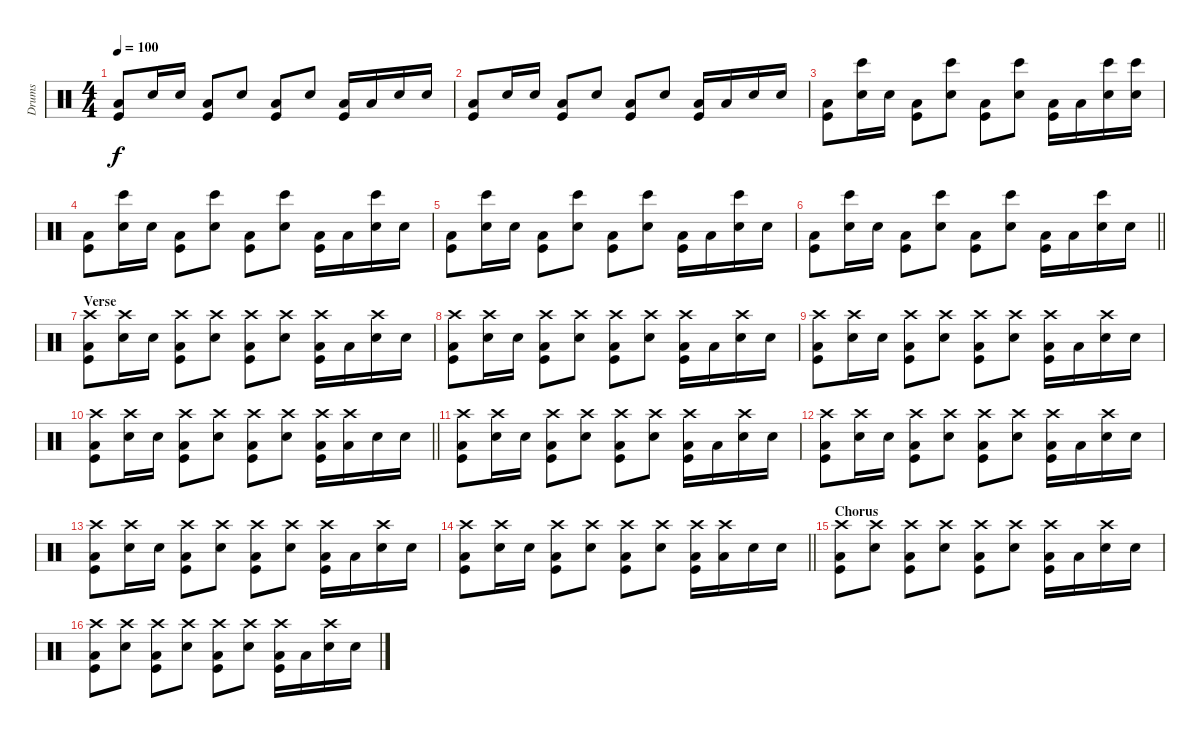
\track ("Drums" "Drums") {instrument percussion}
\staff {score}
\articulation defaults
\ts (4 4)
\tempo 100
\clef neutral
\ks c
("Low Floor Tom (hit)" "Kick (hit)").8{dy f} "Snare (hit) 2".16 "Snare (hit) 2".16 ("Low Floor Tom (hit)" "Kick (hit)").8 "Snare (hit) 2".8 ("Low Floor Tom (hit)" "Kick (hit)").8 "Snare (hit) 2".8 ("Low Floor Tom (hit)" "Kick (hit)").16 "Low Floor Tom (hit)".16 "Snare (hit) 2".16 "Snare (hit) 2".16 |
("Low Floor Tom (hit)" "Kick (hit)").8 "Snare (hit) 2".16 "Snare (hit) 2".16 ("Low Floor Tom (hit)" "Kick (hit)").8 "Snare (hit) 2".8 ("Low Floor Tom (hit)" "Kick (hit)").8 "Snare (hit) 2".8 ("Low Floor Tom (hit)" "Kick (hit)").16 "Low Floor Tom (hit)".16 "Snare (hit) 2".16 "Snare (hit) 2".16 |
("Low Floor Tom (hit)" "Kick (hit)").8 ("Bongo High (hit)" "Snare (hit) 2").16 "Snare (hit) 2".16 ("Low Floor Tom (hit)" "Kick (hit)").8 ("Bongo High (hit)" "Snare (hit) 2").8 ("Low Floor Tom (hit)" "Kick (hit)").8 ("Bongo High (hit)" "Snare (hit) 2").8 ("Low Floor Tom (hit)" "Kick (hit)").16 "Low Floor Tom (hit)".16 ("Bongo High (hit)" "Snare (hit) 2").16 ("Bongo High (hit)" "Snare (hit) 2").16 |
("Low Floor Tom (hit)" "Kick (hit)").8 ("Bongo High (hit)" "Snare (hit) 2").16 "Snare (hit) 2".16 ("Low Floor Tom (hit)" "Kick (hit)").8 ("Bongo High (hit)" "Snare (hit) 2").8 ("Low Floor Tom (hit)" "Kick (hit)").8 ("Bongo High (hit)" "Snare (hit) 2").8 ("Low Floor Tom (hit)" "Kick (hit)").16 "Low Floor Tom (hit)".16 ("Bongo High (hit)" "Snare (hit) 2").16 "Snare (hit) 2".16 |
("Low Floor Tom (hit)" "Kick (hit)").8 ("Bongo High (hit)" "Snare (hit) 2").16 "Snare (hit) 2".16 ("Low Floor Tom (hit)" "Kick (hit)").8 ("Bongo High (hit)" "Snare (hit) 2").8 ("Low Floor Tom (hit)" "Kick (hit)").8 ("Bongo High (hit)" "Snare (hit) 2").8 ("Low Floor Tom (hit)" "Kick (hit)").16 "Low Floor Tom (hit)".16 ("Bongo High (hit)" "Snare (hit) 2").16 "Snare (hit) 2".16 |
\barLineRight lightlight
("Low Floor Tom (hit)" "Kick (hit)").8 ("Bongo High (hit)" "Snare (hit) 2").16 "Snare (hit) 2".16 ("Low Floor Tom (hit)" "Kick (hit)").8 ("Bongo High (hit)" "Snare (hit) 2").8 ("Low Floor Tom (hit)" "Kick (hit)").8 ("Bongo High (hit)" "Snare (hit) 2").8 ("Low Floor Tom (hit)" "Kick (hit)").16 "Low Floor Tom (hit)".16 ("Bongo High (hit)" "Snare (hit) 2").16 "Snare (hit) 2".16 |
\section ("" "Verse")
("Crash high (hit)" "Low Floor Tom (hit)" "Kick (hit)").8 ("Crash high (hit)" "Snare (hit) 2").16 "Snare (hit) 2".16 ("Crash high (hit)" "Low Floor Tom (hit)" "Kick (hit)").8 ("Crash high (hit)" "Snare (hit) 2").8 ("Crash high (hit)" "Low Floor Tom (hit)" "Kick (hit)").8 ("Crash high (hit)" "Snare (hit) 2").8 ("Crash high (hit)" "Low Floor Tom (hit)" "Kick (hit)").16 "Low Floor Tom (hit)".16 ("Crash high (hit)" "Snare (hit) 2").16 "Snare (hit) 2".16 |
("Crash high (hit)" "Low Floor Tom (hit)" "Kick (hit)").8 ("Crash high (hit)" "Snare (hit) 2").16 "Snare (hit) 2".16 ("Crash high (hit)" "Low Floor Tom (hit)" "Kick (hit)").8 ("Crash high (hit)" "Snare (hit) 2").8 ("Crash high (hit)" "Low Floor Tom (hit)" "Kick (hit)").8 ("Crash high (hit)" "Snare (hit) 2").8 ("Crash high (hit)" "Low Floor Tom (hit)" "Kick (hit)").16 "Low Floor Tom (hit)".16 ("Crash high (hit)" "Snare (hit) 2").16 "Snare (hit) 2".16 |
("Crash high (hit)" "Low Floor Tom (hit)" "Kick (hit)").8 ("Crash high (hit)" "Snare (hit) 2").16 "Snare (hit) 2".16 ("Crash high (hit)" "Low Floor Tom (hit)" "Kick (hit)").8 ("Crash high (hit)" "Snare (hit) 2").8 ("Crash high (hit)" "Low Floor Tom (hit)" "Kick (hit)").8 ("Crash high (hit)" "Snare (hit) 2").8 ("Crash high (hit)" "Low Floor Tom (hit)" "Kick (hit)").16 "Low Floor Tom (hit)".16 ("Crash high (hit)" "Snare (hit) 2").16 "Snare (hit) 2".16 |
\barLineRight lightlight
("Crash high (hit)" "Low Floor Tom (hit)" "Kick (hit)").8 ("Crash high (hit)" "Snare (hit) 2").16 "Snare (hit) 2".16 ("Crash high (hit)" "Low Floor Tom (hit)" "Kick (hit)").8 ("Crash high (hit)" "Snare (hit) 2").8 ("Crash high (hit)" "Low Floor Tom (hit)" "Kick (hit)").8 ("Crash high (hit)" "Snare (hit) 2").8 ("Crash high (hit)" "Low Floor Tom (hit)" "Kick (hit)").16 ("Crash high (hit)" "Low Floor Tom (hit)").16 "Snare (hit) 2".16 "Snare (hit) 2".16 |
("Crash high (hit)" "Low Floor Tom (hit)" "Kick (hit)").8 ("Crash high (hit)" "Snare (hit) 2").16 "Snare (hit) 2".16 ("Crash high (hit)" "Low Floor Tom (hit)" "Kick (hit)").8 ("Crash high (hit)" "Snare (hit) 2").8 ("Crash high (hit)" "Low Floor Tom (hit)" "Kick (hit)").8 ("Crash high (hit)" "Snare (hit) 2").8 ("Crash high (hit)" "Low Floor Tom (hit)" "Kick (hit)").16 "Low Floor Tom (hit)".16 ("Crash high (hit)" "Snare (hit) 2").16 "Snare (hit) 2".16 |
("Crash high (hit)" "Low Floor Tom (hit)" "Kick (hit)").8 ("Crash high (hit)" "Snare (hit) 2").16 "Snare (hit) 2".16 ("Crash high (hit)" "Low Floor Tom (hit)" "Kick (hit)").8 ("Crash high (hit)" "Snare (hit) 2").8 ("Crash high (hit)" "Low Floor Tom (hit)" "Kick (hit)").8 ("Crash high (hit)" "Snare (hit) 2").8 ("Crash high (hit)" "Low Floor Tom (hit)" "Kick (hit)").16 "Low Floor Tom (hit)".16 ("Crash high (hit)" "Snare (hit) 2").16 "Snare (hit) 2".16 |
("Crash high (hit)" "Low Floor Tom (hit)" "Kick (hit)").8 ("Crash high (hit)" "Snare (hit) 2").16 "Snare (hit) 2".16 ("Crash high (hit)" "Low Floor Tom (hit)" "Kick (hit)").8 ("Crash high (hit)" "Snare (hit) 2").8 ("Crash high (hit)" "Low Floor Tom (hit)" "Kick (hit)").8 ("Crash high (hit)" "Snare (hit) 2").8 ("Crash high (hit)" "Low Floor Tom (hit)" "Kick (hit)").16 "Low Floor Tom (hit)".16 ("Crash high (hit)" "Snare (hit) 2").16 "Snare (hit) 2".16 |
\barLineRight lightlight
("Crash high (hit)" "Low Floor Tom (hit)" "Kick (hit)").8 ("Crash high (hit)" "Snare (hit) 2").16 "Snare (hit) 2".16 ("Crash high (hit)" "Low Floor Tom (hit)" "Kick (hit)").8 ("Crash high (hit)" "Snare (hit) 2").8 ("Crash high (hit)" "Low Floor Tom (hit)" "Kick (hit)").8 ("Crash high (hit)" "Snare (hit) 2").8 ("Crash high (hit)" "Low Floor Tom (hit)" "Kick (hit)").16 ("Crash high (hit)" "Low Floor Tom (hit)").16 "Snare (hit) 2".16 "Snare (hit) 2".16 |
\section ("" "Chorus")
("Crash high (hit)" "Low Floor Tom (hit)" "Kick (hit)").8 ("Crash high (hit)" "Snare (hit) 2").8 ("Crash high (hit)" "Low Floor Tom (hit)" "Kick (hit)").8 ("Crash high (hit)" "Snare (hit) 2").8 ("Crash high (hit)" "Low Floor Tom (hit)" "Kick (hit)").8 ("Crash high (hit)" "Snare (hit) 2").8 ("Crash high (hit)" "Low Floor Tom (hit)" "Kick (hit)").16 "Low Floor Tom (hit)".16 ("Crash high (hit)" "Snare (hit) 2").16 "Snare (hit) 2".16 |
("Crash high (hit)" "Low Floor Tom (hit)" "Kick (hit)").8 ("Crash high (hit)" "Snare (hit) 2").8 ("Crash high (hit)" "Low Floor Tom (hit)" "Kick (hit)").8 ("Crash high (hit)" "Snare (hit) 2").8 ("Crash high (hit)" "Low Floor Tom (hit)" "Kick (hit)").8 ("Crash high (hit)" "Snare (hit) 2").8 ("Crash high (hit)" "Low Floor Tom (hit)" "Kick (hit)").16 "Low Floor Tom (hit)".16 ("Crash high (hit)" "Snare (hit) 2").16 "Snare (hit) 2".16
